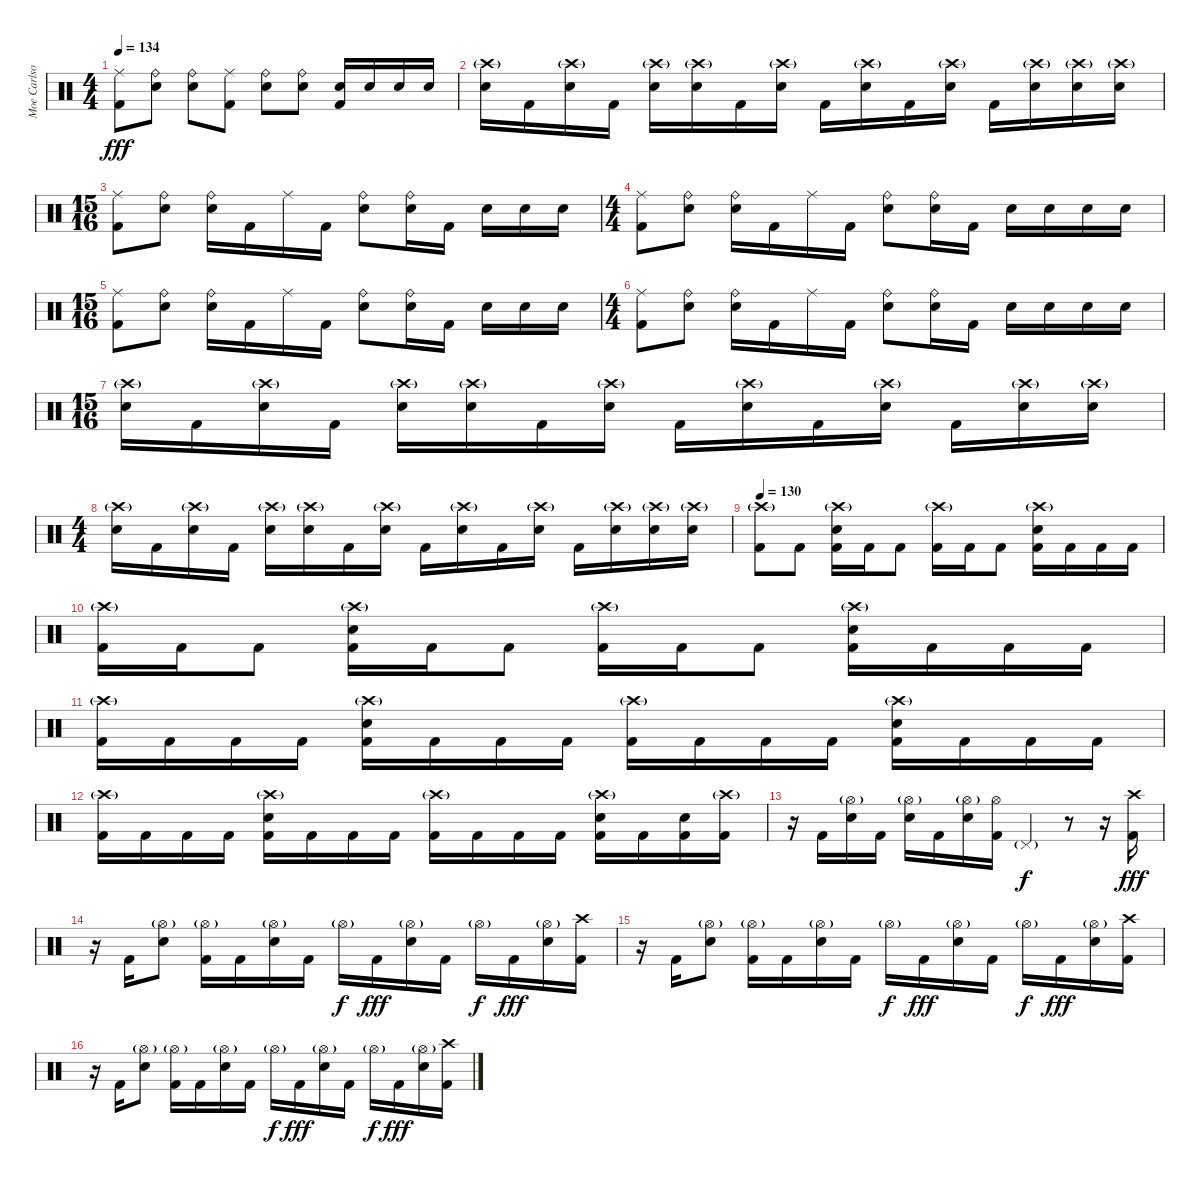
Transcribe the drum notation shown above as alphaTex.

\track ("Moe Carlson" "Moe Carlso") {instrument percussion}
\staff {score}
\articulation defaults
\ts (4 4)
\tempo 134
\clef neutral
\ks c
("Ride (middle)" "Kick (hit) 2").8{dy fff} ("Ride (bell)" "Electric Snare (hit)").8 ("Ride (bell)" "Electric Snare (hit)").8 ("Ride (middle)" "Kick (hit) 2").8 ("Ride (bell)" "Electric Snare (hit)").8 ("Ride (bell)" "Electric Snare (hit)").8 ("Electric Snare (hit)" "Kick (hit) 2").16 "Electric Snare (hit)".16 "Electric Snare (hit)".16 "Electric Snare (hit)".16 |
("Crash high (hit)"{g} "Electric Snare (hit)").16 "Kick (hit) 2".16 ("Crash high (hit)"{g} "Electric Snare (hit)").16 "Kick (hit) 2".16 ("Crash high (hit)"{g} "Electric Snare (hit)").16 ("Crash high (hit)"{g} "Electric Snare (hit)").16 "Kick (hit) 2".16 ("Crash high (hit)"{g} "Electric Snare (hit)").16 "Kick (hit) 2".16 ("Crash high (hit)"{g} "Electric Snare (hit)").16 "Kick (hit) 2".16 ("Crash high (hit)"{g} "Electric Snare (hit)").16 "Kick (hit) 2".16 ("Crash high (hit)"{g} "Electric Snare (hit)").16 ("Crash high (hit)"{g} "Electric Snare (hit)").16 ("Crash high (hit)"{g} "Electric Snare (hit)").16 |
\ts (15 16)
("Ride (middle)" "Kick (hit) 2").8 ("Ride (bell)" "Electric Snare (hit)").8 ("Ride (bell)" "Electric Snare (hit)").16 "Kick (hit) 2".16 "Ride (middle)".16 "Kick (hit) 2".16 ("Ride (bell)" "Electric Snare (hit)").8 ("Ride (bell)" "Electric Snare (hit)").16 "Kick (hit) 2".16 "Electric Snare (hit)".16 "Electric Snare (hit)".16 "Electric Snare (hit)".16 |
\ts (4 4)
("Ride (middle)" "Kick (hit) 2").8 ("Ride (bell)" "Electric Snare (hit)").8 ("Ride (bell)" "Electric Snare (hit)").16 "Kick (hit) 2".16 "Ride (middle)".16 "Kick (hit) 2".16 ("Ride (bell)" "Electric Snare (hit)").8 ("Ride (bell)" "Electric Snare (hit)").16 "Kick (hit) 2".16 "Electric Snare (hit)".16 "Electric Snare (hit)".16 "Electric Snare (hit)".16 "Electric Snare (hit)".16 |
\ts (15 16)
("Ride (middle)" "Kick (hit) 2").8 ("Ride (bell)" "Electric Snare (hit)").8 ("Ride (bell)" "Electric Snare (hit)").16 "Kick (hit) 2".16 "Ride (middle)".16 "Kick (hit) 2".16 ("Ride (bell)" "Electric Snare (hit)").8 ("Ride (bell)" "Electric Snare (hit)").16 "Kick (hit) 2".16 "Electric Snare (hit)".16 "Electric Snare (hit)".16 "Electric Snare (hit)".16 |
\ts (4 4)
("Ride (middle)" "Kick (hit) 2").8 ("Ride (bell)" "Electric Snare (hit)").8 ("Ride (bell)" "Electric Snare (hit)").16 "Kick (hit) 2".16 "Ride (middle)".16 "Kick (hit) 2".16 ("Ride (bell)" "Electric Snare (hit)").8 ("Ride (bell)" "Electric Snare (hit)").16 "Kick (hit) 2".16 "Electric Snare (hit)".16 "Electric Snare (hit)".16 "Electric Snare (hit)".16 "Electric Snare (hit)".16 |
\ts (15 16)
("Crash high (hit)"{g} "Electric Snare (hit)").16 "Kick (hit) 2".16 ("Crash high (hit)"{g} "Electric Snare (hit)").16 "Kick (hit) 2".16 ("Crash high (hit)"{g} "Electric Snare (hit)").16 ("Crash high (hit)"{g} "Electric Snare (hit)").16 "Kick (hit) 2".16 ("Crash high (hit)"{g} "Electric Snare (hit)").16 "Kick (hit) 2".16 ("Crash high (hit)"{g} "Electric Snare (hit)").16 "Kick (hit) 2".16 ("Crash high (hit)"{g} "Electric Snare (hit)").16 "Kick (hit) 2".16 ("Crash high (hit)"{g} "Electric Snare (hit)").16 ("Crash high (hit)"{g} "Electric Snare (hit)").16 |
\ts (4 4)
("Crash high (hit)"{g} "Electric Snare (hit)").16 "Kick (hit) 2".16 ("Crash high (hit)"{g} "Electric Snare (hit)").16 "Kick (hit) 2".16 ("Crash high (hit)"{g} "Electric Snare (hit)").16 ("Crash high (hit)"{g} "Electric Snare (hit)").16 "Kick (hit) 2".16 ("Crash high (hit)"{g} "Electric Snare (hit)").16 "Kick (hit) 2".16 ("Crash high (hit)"{g} "Electric Snare (hit)").16 "Kick (hit) 2".16 ("Crash high (hit)"{g} "Electric Snare (hit)").16 "Kick (hit) 2".16 ("Crash high (hit)"{g} "Electric Snare (hit)").16 ("Crash high (hit)"{g} "Electric Snare (hit)").16 ("Crash high (hit)"{g} "Electric Snare (hit)").16 |
\tempo 130
("Crash high (hit)"{g} "Kick (hit) 2").8 "Kick (hit) 2".8 ("Crash high (hit)"{g} "Electric Snare (hit)" "Kick (hit) 2").16 "Kick (hit) 2".16 "Kick (hit) 2".8 ("Crash high (hit)"{g} "Kick (hit) 2").16 "Kick (hit) 2".16 "Kick (hit) 2".8 ("Crash high (hit)"{g} "Electric Snare (hit)" "Kick (hit) 2").16 "Kick (hit) 2".16 "Kick (hit) 2".16 "Kick (hit) 2".16 |
("Crash high (hit)"{g} "Kick (hit) 2").16 "Kick (hit) 2".16 "Kick (hit) 2".8 ("Crash high (hit)"{g} "Electric Snare (hit)" "Kick (hit) 2").16 "Kick (hit) 2".16 "Kick (hit) 2".8 ("Crash high (hit)"{g} "Kick (hit) 2").16 "Kick (hit) 2".16 "Kick (hit) 2".8 ("Crash high (hit)"{g} "Electric Snare (hit)" "Kick (hit) 2").16 "Kick (hit) 2".16 "Kick (hit) 2".16 "Kick (hit) 2".16 |
("Crash high (hit)"{g} "Kick (hit) 2").16 "Kick (hit) 2".16 "Kick (hit) 2".16 "Kick (hit) 2".16 ("Crash high (hit)"{g} "Electric Snare (hit)" "Kick (hit) 2").16 "Kick (hit) 2".16 "Kick (hit) 2".16 "Kick (hit) 2".16 ("Crash high (hit)"{g} "Kick (hit) 2").16 "Kick (hit) 2".16 "Kick (hit) 2".16 "Kick (hit) 2".16 ("Crash high (hit)"{g} "Electric Snare (hit)" "Kick (hit) 2").16 "Kick (hit) 2".16 "Kick (hit) 2".16 "Kick (hit) 2".16 |
("Crash high (hit)"{g} "Kick (hit) 2").16 "Kick (hit) 2".16 "Kick (hit) 2".16 "Kick (hit) 2".16 ("Crash high (hit)"{g} "Electric Snare (hit)" "Kick (hit) 2").16 "Kick (hit) 2".16 "Kick (hit) 2".16 "Kick (hit) 2".16 ("Crash high (hit)"{g} "Kick (hit) 2").16 "Kick (hit) 2".16 "Kick (hit) 2".16 "Kick (hit) 2".16 ("Crash high (hit)"{g} "Electric Snare (hit)" "Kick (hit) 2").16 "Kick (hit) 2".16 ("Electric Snare (hit)" "Kick (hit) 2").16 ("Crash high (hit)"{g} "Kick (hit) 2").16 |
r.16 "Kick (hit) 2".16 ("Hi-Hat (open)"{g} "Electric Snare (hit)").16 "Kick (hit) 2".16 ("Hi-Hat (open)"{g} "Electric Snare (hit)").16 "Kick (hit) 2".16 ("Hi-Hat (open)"{g} "Electric Snare (hit)").16 ("Hi-Hat (open)" "Kick (hit) 2").16 "Pedal Hi-Hat (hit)"{g}.4{dy f} r.8 r.16 ("Crash high (hit)" "Kick (hit) 2").16{dy fff} |
r.16 "Kick (hit) 2".16 ("Hi-Hat (open)"{g} "Electric Snare (hit)").8 ("Hi-Hat (open)"{g} "Kick (hit) 2").16 "Kick (hit) 2".16 ("Hi-Hat (open)"{g} "Electric Snare (hit)").16 "Kick (hit) 2".16 "Hi-Hat (open)"{g}.16{dy f} "Kick (hit) 2".16{dy fff} ("Hi-Hat (open)"{g} "Electric Snare (hit)").16 "Kick (hit) 2".16 "Hi-Hat (open)"{g}.16{dy f} "Kick (hit) 2".16{dy fff} ("Hi-Hat (open)"{g} "Electric Snare (hit)").16 ("Crash high (hit)" "Kick (hit) 2").16 |
r.16 "Kick (hit) 2".16 ("Hi-Hat (open)"{g} "Electric Snare (hit)").8 ("Hi-Hat (open)"{g} "Kick (hit) 2").16 "Kick (hit) 2".16 ("Hi-Hat (open)"{g} "Electric Snare (hit)").16 "Kick (hit) 2".16 "Hi-Hat (open)"{g}.16{dy f} "Kick (hit) 2".16{dy fff} ("Hi-Hat (open)"{g} "Electric Snare (hit)").16 "Kick (hit) 2".16 "Hi-Hat (open)"{g}.16{dy f} "Kick (hit) 2".16{dy fff} ("Hi-Hat (open)"{g} "Electric Snare (hit)").16 ("Crash high (hit)" "Kick (hit) 2").16 |
r.16 "Kick (hit) 2".16 ("Hi-Hat (open)"{g} "Electric Snare (hit)").8 ("Hi-Hat (open)"{g} "Kick (hit) 2").16 "Kick (hit) 2".16 ("Hi-Hat (open)"{g} "Electric Snare (hit)").16 "Kick (hit) 2".16 "Hi-Hat (open)"{g}.16{dy f} "Kick (hit) 2".16{dy fff} ("Hi-Hat (open)"{g} "Electric Snare (hit)").16 "Kick (hit) 2".16 "Hi-Hat (open)"{g}.16{dy f} "Kick (hit) 2".16{dy fff} ("Hi-Hat (open)"{g} "Electric Snare (hit)").16 ("Crash high (hit)" "Kick (hit) 2").16
